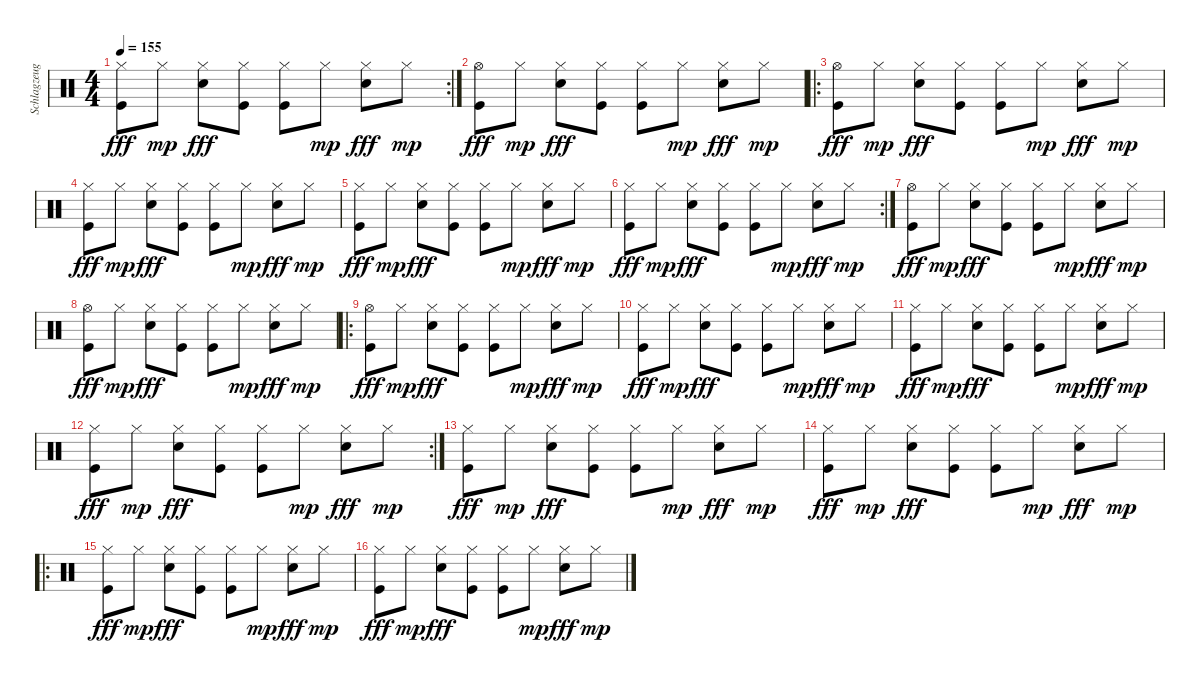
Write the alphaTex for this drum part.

\track ("Schlagzeug" "Schlagzeug") {instrument percussion}
\staff {score}
\articulation defaults
\rc 2
\ts (4 4)
\tempo 155
\clef neutral
\ks c
("Hi-Hat (closed)" "Kick (hit)").8{dy fff} "Hi-Hat (closed)".8{dy mp} ("Hi-Hat (closed)" "Electric Snare (hit)").8{dy fff} ("Hi-Hat (closed)" "Kick (hit)").8 ("Hi-Hat (closed)" "Kick (hit)").8 "Hi-Hat (closed)".8{dy mp} ("Hi-Hat (closed)" "Electric Snare (hit)").8{dy fff} "Hi-Hat (closed)".8{dy mp} |
("Hi-Hat (open)" "Kick (hit)").8{dy fff} "Hi-Hat (closed)".8{dy mp} ("Hi-Hat (closed)" "Electric Snare (hit)").8{dy fff} ("Hi-Hat (closed)" "Kick (hit)").8 ("Hi-Hat (closed)" "Kick (hit)").8 "Hi-Hat (closed)".8{dy mp} ("Hi-Hat (closed)" "Electric Snare (hit)").8{dy fff} "Hi-Hat (closed)".8{dy mp} |
\ro
("Hi-Hat (open)" "Kick (hit)").8{dy fff} "Hi-Hat (closed)".8{dy mp} ("Hi-Hat (closed)" "Electric Snare (hit)").8{dy fff} ("Hi-Hat (closed)" "Kick (hit)").8 ("Hi-Hat (closed)" "Kick (hit)").8 "Hi-Hat (closed)".8{dy mp} ("Hi-Hat (closed)" "Electric Snare (hit)").8{dy fff} "Hi-Hat (closed)".8{dy mp} |
("Hi-Hat (closed)" "Kick (hit)").8{dy fff} "Hi-Hat (closed)".8{dy mp} ("Hi-Hat (closed)" "Electric Snare (hit)").8{dy fff} ("Hi-Hat (closed)" "Kick (hit)").8 ("Hi-Hat (closed)" "Kick (hit)").8 "Hi-Hat (closed)".8{dy mp} ("Hi-Hat (closed)" "Electric Snare (hit)").8{dy fff} "Hi-Hat (closed)".8{dy mp} |
("Hi-Hat (closed)" "Kick (hit)").8{dy fff} "Hi-Hat (closed)".8{dy mp} ("Hi-Hat (closed)" "Electric Snare (hit)").8{dy fff} ("Hi-Hat (closed)" "Kick (hit)").8 ("Hi-Hat (closed)" "Kick (hit)").8 "Hi-Hat (closed)".8{dy mp} ("Hi-Hat (closed)" "Electric Snare (hit)").8{dy fff} "Hi-Hat (closed)".8{dy mp} |
\rc 2
("Hi-Hat (closed)" "Kick (hit)").8{dy fff} "Hi-Hat (closed)".8{dy mp} ("Hi-Hat (closed)" "Electric Snare (hit)").8{dy fff} ("Hi-Hat (closed)" "Kick (hit)").8 ("Hi-Hat (closed)" "Kick (hit)").8 "Hi-Hat (closed)".8{dy mp} ("Hi-Hat (closed)" "Electric Snare (hit)").8{dy fff} "Hi-Hat (closed)".8{dy mp} |
("Hi-Hat (open)" "Kick (hit)").8{dy fff} "Hi-Hat (closed)".8{dy mp} ("Hi-Hat (closed)" "Electric Snare (hit)").8{dy fff} ("Hi-Hat (closed)" "Kick (hit)").8 ("Hi-Hat (closed)" "Kick (hit)").8 "Hi-Hat (closed)".8{dy mp} ("Hi-Hat (closed)" "Electric Snare (hit)").8{dy fff} "Hi-Hat (closed)".8{dy mp} |
("Hi-Hat (open)" "Kick (hit)").8{dy fff} "Hi-Hat (closed)".8{dy mp} ("Hi-Hat (closed)" "Electric Snare (hit)").8{dy fff} ("Hi-Hat (closed)" "Kick (hit)").8 ("Hi-Hat (closed)" "Kick (hit)").8 "Hi-Hat (closed)".8{dy mp} ("Hi-Hat (closed)" "Electric Snare (hit)").8{dy fff} "Hi-Hat (closed)".8{dy mp} |
\ro
("Hi-Hat (open)" "Kick (hit)").8{dy fff} "Hi-Hat (closed)".8{dy mp} ("Hi-Hat (closed)" "Electric Snare (hit)").8{dy fff} ("Hi-Hat (closed)" "Kick (hit)").8 ("Hi-Hat (closed)" "Kick (hit)").8 "Hi-Hat (closed)".8{dy mp} ("Hi-Hat (closed)" "Electric Snare (hit)").8{dy fff} "Hi-Hat (closed)".8{dy mp} |
("Hi-Hat (closed)" "Kick (hit)").8{dy fff} "Hi-Hat (closed)".8{dy mp} ("Hi-Hat (closed)" "Electric Snare (hit)").8{dy fff} ("Hi-Hat (closed)" "Kick (hit)").8 ("Hi-Hat (closed)" "Kick (hit)").8 "Hi-Hat (closed)".8{dy mp} ("Hi-Hat (closed)" "Electric Snare (hit)").8{dy fff} "Hi-Hat (closed)".8{dy mp} |
("Hi-Hat (closed)" "Kick (hit)").8{dy fff} "Hi-Hat (closed)".8{dy mp} ("Hi-Hat (closed)" "Electric Snare (hit)").8{dy fff} ("Hi-Hat (closed)" "Kick (hit)").8 ("Hi-Hat (closed)" "Kick (hit)").8 "Hi-Hat (closed)".8{dy mp} ("Hi-Hat (closed)" "Electric Snare (hit)").8{dy fff} "Hi-Hat (closed)".8{dy mp} |
\rc 2
("Hi-Hat (closed)" "Kick (hit)").8{dy fff} "Hi-Hat (closed)".8{dy mp} ("Hi-Hat (closed)" "Electric Snare (hit)").8{dy fff} ("Hi-Hat (closed)" "Kick (hit)").8 ("Hi-Hat (closed)" "Kick (hit)").8 "Hi-Hat (closed)".8{dy mp} ("Hi-Hat (closed)" "Electric Snare (hit)").8{dy fff} "Hi-Hat (closed)".8{dy mp} |
("Hi-Hat (closed)" "Kick (hit)").8{dy fff} "Hi-Hat (closed)".8{dy mp} ("Hi-Hat (closed)" "Electric Snare (hit)").8{dy fff} ("Hi-Hat (closed)" "Kick (hit)").8 ("Hi-Hat (closed)" "Kick (hit)").8 "Hi-Hat (closed)".8{dy mp} ("Hi-Hat (closed)" "Electric Snare (hit)").8{dy fff} "Hi-Hat (closed)".8{dy mp} |
("Hi-Hat (closed)" "Kick (hit)").8{dy fff} "Hi-Hat (closed)".8{dy mp} ("Hi-Hat (closed)" "Electric Snare (hit)").8{dy fff} ("Hi-Hat (closed)" "Kick (hit)").8 ("Hi-Hat (closed)" "Kick (hit)").8 "Hi-Hat (closed)".8{dy mp} ("Hi-Hat (closed)" "Electric Snare (hit)").8{dy fff} "Hi-Hat (closed)".8{dy mp} |
\ro
("Hi-Hat (closed)" "Kick (hit)").8{dy fff} "Hi-Hat (closed)".8{dy mp} ("Hi-Hat (closed)" "Electric Snare (hit)").8{dy fff} ("Hi-Hat (closed)" "Kick (hit)").8 ("Hi-Hat (closed)" "Kick (hit)").8 "Hi-Hat (closed)".8{dy mp} ("Hi-Hat (closed)" "Electric Snare (hit)").8{dy fff} "Hi-Hat (closed)".8{dy mp} |
("Hi-Hat (closed)" "Kick (hit)").8{dy fff} "Hi-Hat (closed)".8{dy mp} ("Hi-Hat (closed)" "Electric Snare (hit)").8{dy fff} ("Hi-Hat (closed)" "Kick (hit)").8 ("Hi-Hat (closed)" "Kick (hit)").8 "Hi-Hat (closed)".8{dy mp} ("Hi-Hat (closed)" "Electric Snare (hit)").8{dy fff} "Hi-Hat (closed)".8{dy mp}
